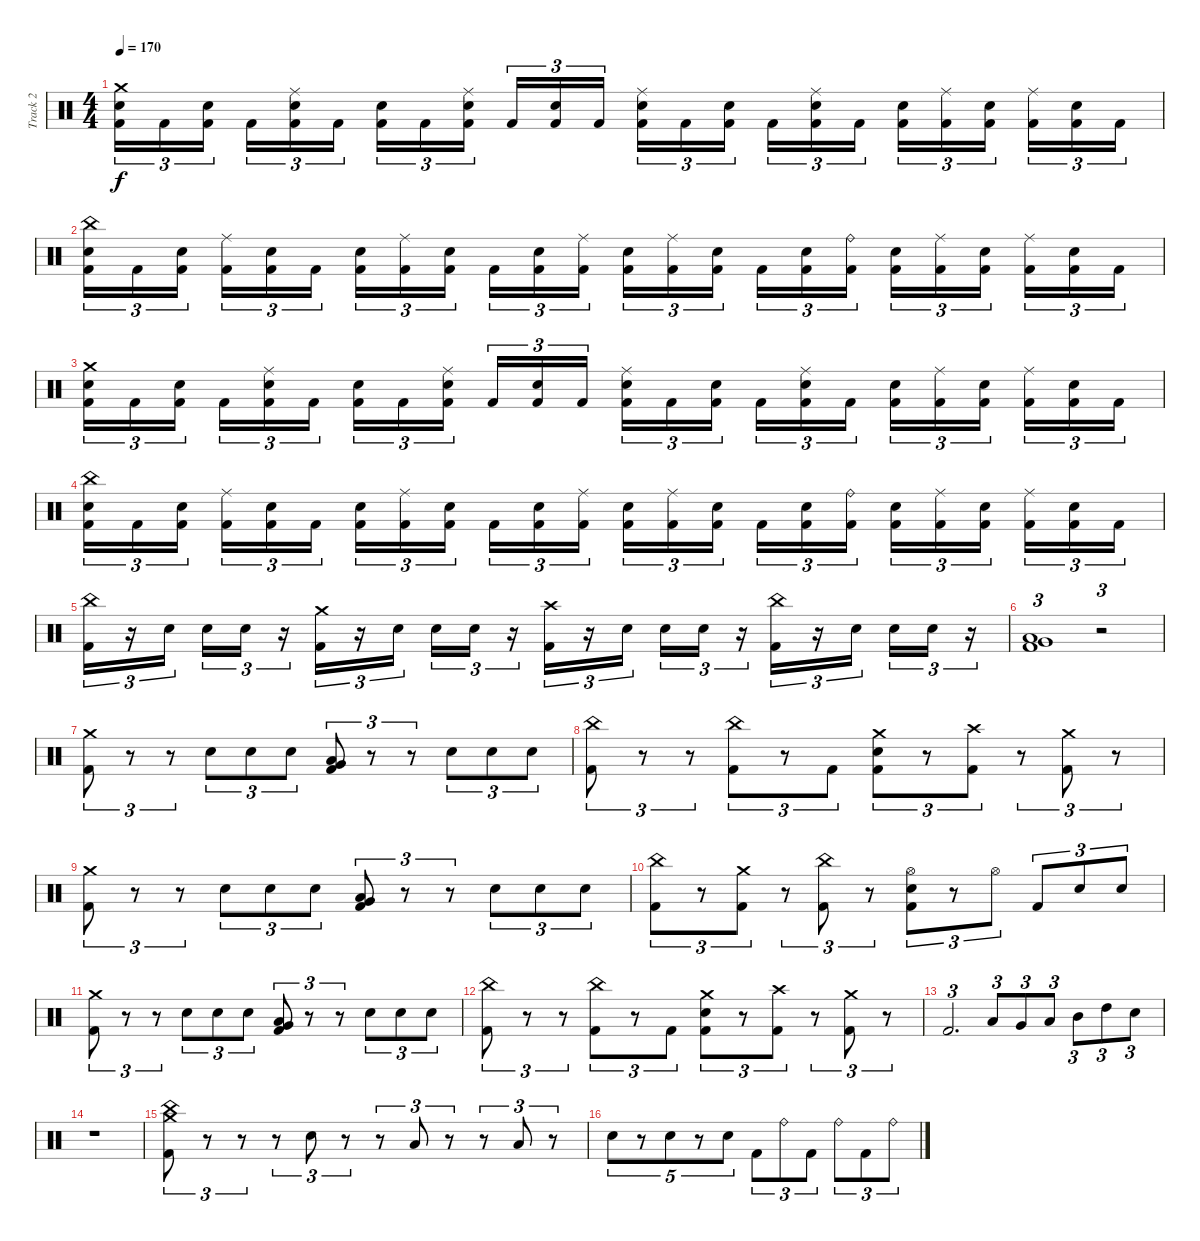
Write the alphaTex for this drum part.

\track ("Track 2" "Track 2") {instrument percussion}
\staff {score}
\articulation defaults
\ts (4 4)
\tempo 170
\clef neutral
\ks c
("Crash medium (hit)" "Electric Snare (hit)" "Kick (hit) 2").16{tu (3 2) dy f} "Kick (hit) 2".16{tu (3 2)} ("Electric Snare (hit)" "Kick (hit) 2").16{tu (3 2)} "Kick (hit) 2".16{tu (3 2)} ("Ride (middle)" "Electric Snare (hit)" "Kick (hit) 2").16{tu (3 2)} "Kick (hit) 2".16{tu (3 2)} ("Electric Snare (hit)" "Kick (hit) 2").16{tu (3 2)} "Kick (hit) 2".16{tu (3 2)} ("Ride (middle)" "Electric Snare (hit)" "Kick (hit) 2").16{tu (3 2)} "Kick (hit) 2".16{tu (3 2)} ("Electric Snare (hit)" "Kick (hit) 2").16{tu (3 2)} "Kick (hit) 2".16{tu (3 2)} ("Ride (middle)" "Electric Snare (hit)" "Kick (hit) 2").16{tu (3 2)} "Kick (hit) 2".16{tu (3 2)} ("Electric Snare (hit)" "Kick (hit) 2").16{tu (3 2)} "Kick (hit) 2".16{tu (3 2)} ("Ride (middle)" "Electric Snare (hit)" "Kick (hit) 2").16{tu (3 2)} "Kick (hit) 2".16{tu (3 2)} ("Electric Snare (hit)" "Kick (hit) 2").16{tu (3 2)} ("Ride (middle)" "Kick (hit) 2").16{tu (3 2)} ("Electric Snare (hit)" "Kick (hit) 2").16{tu (3 2)} ("Ride (middle)" "Kick (hit) 2").16{tu (3 2)} ("Electric Snare (hit)" "Kick (hit) 2").16{tu (3 2)} "Kick (hit) 2".16{tu (3 2)} |
("China (hit)" "Electric Snare (hit)" "Kick (hit) 2").16{tu (3 2)} "Kick (hit) 2".16{tu (3 2)} ("Electric Snare (hit)" "Kick (hit) 2").16{tu (3 2)} ("Ride (middle)" "Kick (hit) 2").16{tu (3 2)} ("Electric Snare (hit)" "Kick (hit) 2").16{tu (3 2)} "Kick (hit) 2".16{tu (3 2)} ("Electric Snare (hit)" "Kick (hit) 2").16{tu (3 2)} ("Ride (middle)" "Kick (hit) 2").16{tu (3 2)} ("Electric Snare (hit)" "Kick (hit) 2").16{tu (3 2)} "Kick (hit) 2".16{tu (3 2)} ("Electric Snare (hit)" "Kick (hit) 2").16{tu (3 2)} ("Ride (middle)" "Kick (hit) 2").16{tu (3 2)} ("Electric Snare (hit)" "Kick (hit) 2").16{tu (3 2)} ("Ride (middle)" "Kick (hit) 2").16{tu (3 2)} ("Electric Snare (hit)" "Kick (hit) 2").16{tu (3 2)} "Kick (hit) 2".16{tu (3 2)} ("Electric Snare (hit)" "Kick (hit) 2").16{tu (3 2)} ("Ride (bell)" "Kick (hit) 2").16{tu (3 2)} ("Electric Snare (hit)" "Kick (hit) 2").16{tu (3 2)} ("Ride (middle)" "Kick (hit) 2").16{tu (3 2)} ("Electric Snare (hit)" "Kick (hit) 2").16{tu (3 2)} ("Ride (middle)" "Kick (hit) 2").16{tu (3 2)} ("Electric Snare (hit)" "Kick (hit) 2").16{tu (3 2)} "Kick (hit) 2".16{tu (3 2)} |
("Crash medium (hit)" "Electric Snare (hit)" "Kick (hit) 2").16{tu (3 2)} "Kick (hit) 2".16{tu (3 2)} ("Electric Snare (hit)" "Kick (hit) 2").16{tu (3 2)} "Kick (hit) 2".16{tu (3 2)} ("Ride (middle)" "Electric Snare (hit)" "Kick (hit) 2").16{tu (3 2)} "Kick (hit) 2".16{tu (3 2)} ("Electric Snare (hit)" "Kick (hit) 2").16{tu (3 2)} "Kick (hit) 2".16{tu (3 2)} ("Ride (middle)" "Electric Snare (hit)" "Kick (hit) 2").16{tu (3 2)} "Kick (hit) 2".16{tu (3 2)} ("Electric Snare (hit)" "Kick (hit) 2").16{tu (3 2)} "Kick (hit) 2".16{tu (3 2)} ("Ride (middle)" "Electric Snare (hit)" "Kick (hit) 2").16{tu (3 2)} "Kick (hit) 2".16{tu (3 2)} ("Electric Snare (hit)" "Kick (hit) 2").16{tu (3 2)} "Kick (hit) 2".16{tu (3 2)} ("Ride (middle)" "Electric Snare (hit)" "Kick (hit) 2").16{tu (3 2)} "Kick (hit) 2".16{tu (3 2)} ("Electric Snare (hit)" "Kick (hit) 2").16{tu (3 2)} ("Ride (middle)" "Kick (hit) 2").16{tu (3 2)} ("Electric Snare (hit)" "Kick (hit) 2").16{tu (3 2)} ("Ride (middle)" "Kick (hit) 2").16{tu (3 2)} ("Electric Snare (hit)" "Kick (hit) 2").16{tu (3 2)} "Kick (hit) 2".16{tu (3 2)} |
("China (hit)" "Electric Snare (hit)" "Kick (hit) 2").16{tu (3 2)} "Kick (hit) 2".16{tu (3 2)} ("Electric Snare (hit)" "Kick (hit) 2").16{tu (3 2)} ("Ride (middle)" "Kick (hit) 2").16{tu (3 2)} ("Electric Snare (hit)" "Kick (hit) 2").16{tu (3 2)} "Kick (hit) 2".16{tu (3 2)} ("Electric Snare (hit)" "Kick (hit) 2").16{tu (3 2)} ("Ride (middle)" "Kick (hit) 2").16{tu (3 2)} ("Electric Snare (hit)" "Kick (hit) 2").16{tu (3 2)} "Kick (hit) 2".16{tu (3 2)} ("Electric Snare (hit)" "Kick (hit) 2").16{tu (3 2)} ("Ride (middle)" "Kick (hit) 2").16{tu (3 2)} ("Electric Snare (hit)" "Kick (hit) 2").16{tu (3 2)} ("Ride (middle)" "Kick (hit) 2").16{tu (3 2)} ("Electric Snare (hit)" "Kick (hit) 2").16{tu (3 2)} "Kick (hit) 2".16{tu (3 2)} ("Electric Snare (hit)" "Kick (hit) 2").16{tu (3 2)} ("Ride (bell)" "Kick (hit) 2").16{tu (3 2)} ("Electric Snare (hit)" "Kick (hit) 2").16{tu (3 2)} ("Ride (middle)" "Kick (hit) 2").16{tu (3 2)} ("Electric Snare (hit)" "Kick (hit) 2").16{tu (3 2)} ("Ride (middle)" "Kick (hit) 2").16{tu (3 2)} ("Electric Snare (hit)" "Kick (hit) 2").16{tu (3 2)} "Kick (hit) 2".16{tu (3 2)} |
("China (hit)" "Kick (hit) 2").16{tu (3 2)} r.16{tu (3 2)} "Electric Snare (hit)".16{tu (3 2)} "Electric Snare (hit)".16{tu (3 2)} "Electric Snare (hit)".16{tu (3 2)} r.16{tu (3 2)} ("Crash medium (hit)" "Kick (hit) 2").16{tu (3 2)} r.16{tu (3 2)} "Electric Snare (hit)".16{tu (3 2)} "Electric Snare (hit)".16{tu (3 2)} "Electric Snare (hit)".16{tu (3 2)} r.16{tu (3 2)} ("Crash high (hit)" "Kick (hit) 2").16{tu (3 2)} r.16{tu (3 2)} "Electric Snare (hit)".16{tu (3 2)} "Electric Snare (hit)".16{tu (3 2)} "Electric Snare (hit)".16{tu (3 2)} r.16{tu (3 2)} ("China (hit)" "Kick (hit) 2").16{tu (3 2)} r.16{tu (3 2)} "Electric Snare (hit)".16{tu (3 2)} "Electric Snare (hit)".16{tu (3 2)} "Electric Snare (hit)".16{tu (3 2)} r.16{tu (3 2)} |
("Very Low Tom (hit)" "Low Floor Tom (hit)" "Kick (hit) 2").1{tu (3 2)} r.2{tu (3 2)} |
("Crash medium (hit)" "Kick (hit) 2").8{tu (3 2)} r.8{tu (3 2)} r.8{tu (3 2)} "Electric Snare (hit)".8{tu (3 2)} "Electric Snare (hit)".8{tu (3 2)} "Electric Snare (hit)".8{tu (3 2)} ("Very Low Tom (hit)" "Low Floor Tom (hit)" "Kick (hit) 2").8{tu (3 2)} r.8{tu (3 2)} r.8{tu (3 2)} "Electric Snare (hit)".8{tu (3 2)} "Electric Snare (hit)".8{tu (3 2)} "Electric Snare (hit)".8{tu (3 2)} |
("China (hit)" "Kick (hit) 2").8{tu (3 2)} r.8{tu (3 2)} r.8{tu (3 2)} ("China (hit)" "Kick (hit) 2").8{tu (3 2)} r.8{tu (3 2)} "Kick (hit) 2".8{tu (3 2)} ("Crash medium (hit)" "Electric Snare (hit)" "Kick (hit) 2").8{tu (3 2)} r.8{tu (3 2)} ("Crash high (hit)" "Kick (hit) 2").8{tu (3 2)} r.8{tu (3 2)} ("Crash medium (hit)" "Kick (hit) 2").8{tu (3 2)} r.8{tu (3 2)} |
("Crash medium (hit)" "Kick (hit) 2").8{tu (3 2)} r.8{tu (3 2)} r.8{tu (3 2)} "Electric Snare (hit)".8{tu (3 2)} "Electric Snare (hit)".8{tu (3 2)} "Electric Snare (hit)".8{tu (3 2)} ("Very Low Tom (hit)" "Low Floor Tom (hit)" "Kick (hit) 2").8{tu (3 2)} r.8{tu (3 2)} r.8{tu (3 2)} "Electric Snare (hit)".8{tu (3 2)} "Electric Snare (hit)".8{tu (3 2)} "Electric Snare (hit)".8{tu (3 2)} |
("China (hit)" "Kick (hit) 2").8{tu (3 2)} r.8{tu (3 2)} ("Crash medium (hit)" "Kick (hit) 2").8{tu (3 2)} r.8{tu (3 2)} ("China (hit)" "Kick (hit) 2").8{tu (3 2)} r.8{tu (3 2)} ("Hi-Hat (open)" "Electric Snare (hit)" "Kick (hit) 2").8{tu (3 2)} r.8{tu (3 2)} "Hi-Hat (open)".8{tu (3 2)} "Kick (hit) 2".8{tu (3 2)} "Electric Snare (hit)".8{tu (3 2)} "Electric Snare (hit)".8{tu (3 2)} |
("Crash medium (hit)" "Kick (hit) 2").8{tu (3 2)} r.8{tu (3 2)} r.8{tu (3 2)} "Electric Snare (hit)".8{tu (3 2)} "Electric Snare (hit)".8{tu (3 2)} "Electric Snare (hit)".8{tu (3 2)} ("Very Low Tom (hit)" "Low Floor Tom (hit)" "Kick (hit) 2").8{tu (3 2)} r.8{tu (3 2)} r.8{tu (3 2)} "Electric Snare (hit)".8{tu (3 2)} "Electric Snare (hit)".8{tu (3 2)} "Electric Snare (hit)".8{tu (3 2)} |
("China (hit)" "Kick (hit) 2").8{tu (3 2)} r.8{tu (3 2)} r.8{tu (3 2)} ("China (hit)" "Kick (hit) 2").8{tu (3 2)} r.8{tu (3 2)} "Kick (hit) 2".8{tu (3 2)} ("Crash medium (hit)" "Electric Snare (hit)" "Kick (hit) 2").8{tu (3 2)} r.8{tu (3 2)} ("Crash high (hit)" "Kick (hit) 2").8{tu (3 2)} r.8{tu (3 2)} ("Crash medium (hit)" "Kick (hit) 2").8{tu (3 2)} r.8{tu (3 2)} |
"Kick (hit) 2".2{d tu (3 2)} "Low Floor Tom (hit)".8{tu (3 2)} "Very Low Tom (hit)".8{tu (3 2)} "Low Tom (hit)".8{tu (3 2)} "Mid Tom (hit)".8{tu (3 2)} "High Tom (hit)".8{tu (3 2)} "Electric Snare (hit)".8{tu (3 2)} |
r.1 |
("Crash medium (hit)" "China (hit)" "Kick (hit) 2").8{tu (3 2)} r.8{tu (3 2)} r.8{tu (3 2)} r.8{tu (3 2)} "Electric Snare (hit)".8{tu (3 2)} r.8{tu (3 2)} r.8{tu (3 2)} "Low Tom (hit)".8{tu (3 2)} r.8{tu (3 2)} r.8{tu (3 2)} "Low Floor Tom (hit)".8{tu (3 2)} r.8{tu (3 2)} |
"Electric Snare (hit)".8{tu (5 4)} r.8{tu (5 4)} "Electric Snare (hit)".8{tu (5 4)} r.8{tu (5 4)} "Electric Snare (hit)".8{tu (5 4)} "Kick (hit) 2".8{tu (3 2)} "Ride (bell)".8{tu (3 2)} "Kick (hit) 2".8{tu (3 2)} "Ride (bell)".8{tu (3 2)} "Kick (hit) 2".8{tu (3 2)} "Ride (bell)".8{tu (3 2)}
